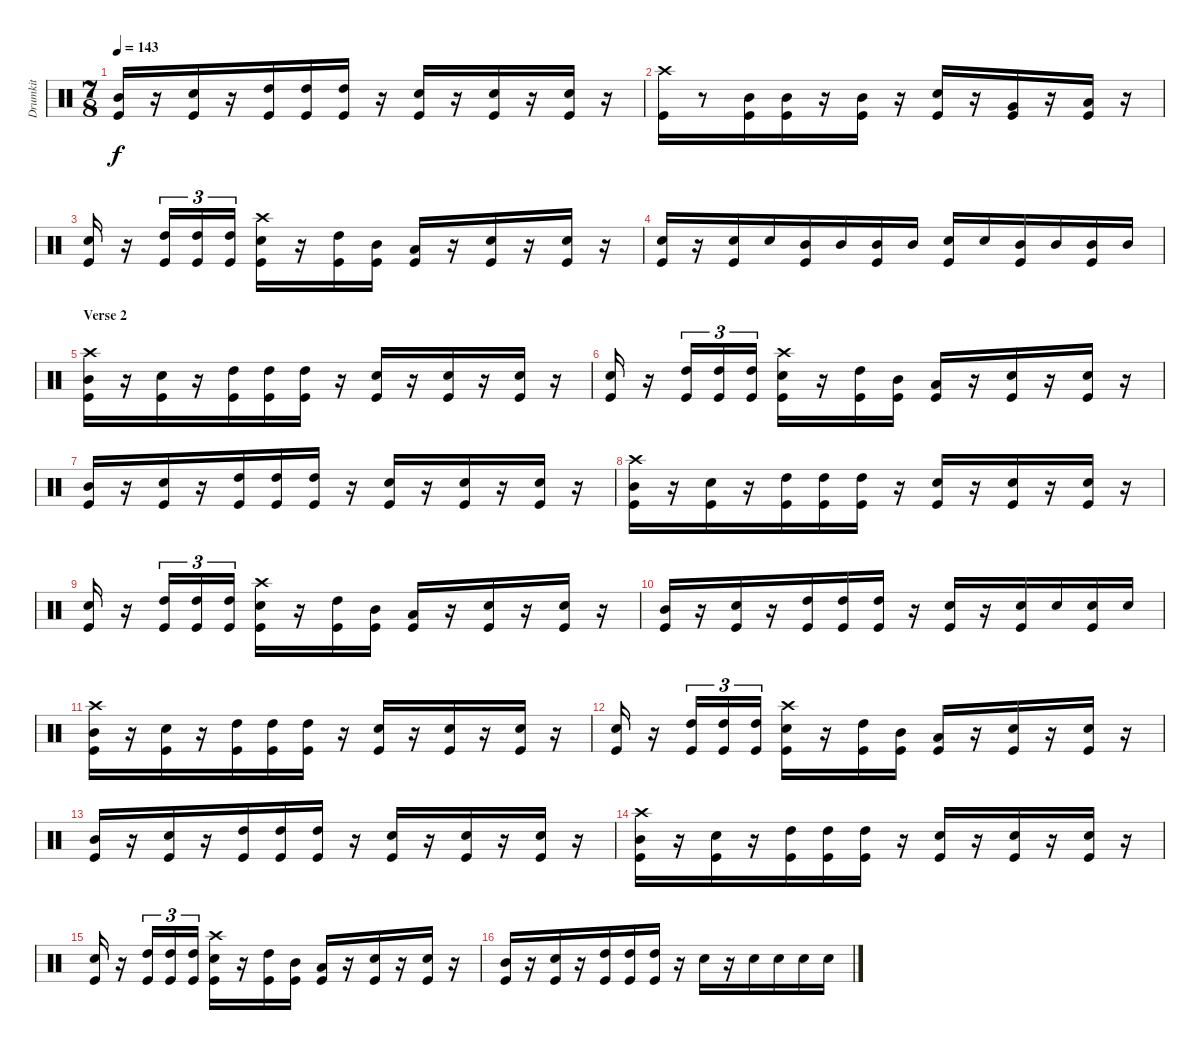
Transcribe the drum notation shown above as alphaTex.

\track ("Drumkit" "Drumkit") {instrument percussion}
\staff {score}
\articulation defaults
\ts (7 8)
\tempo 143
\clef neutral
\ks c
("Mid Tom (hit)" "Kick (hit)").16{dy f} r.16 ("Snare (hit) 2" "Kick (hit)").16 r.16 ("High Tom (hit)" "Kick (hit)").16 ("High Tom (hit)" "Kick (hit)").16 ("High Tom (hit)" "Kick (hit)").16 r.16 ("Snare (hit) 2" "Kick (hit)").16 r.16 ("Snare (hit) 2" "Kick (hit)").16 r.16 ("Snare (hit) 2" "Kick (hit)").16 r.16 |
("Crash high (hit)" "Kick (hit)").16 r.8 ("Mid Tom (hit)" "Kick (hit)").16 ("Mid Tom (hit)" "Kick (hit)").16 r.16 ("Mid Tom (hit)" "Kick (hit)").16 r.16 ("Snare (hit) 2" "Kick (hit)").16 r.16 ("Very Low Tom (hit)" "Kick (hit)").16 r.16 ("Low Tom (hit)" "Kick (hit)").16 r.16 |
("Snare (hit) 2" "Kick (hit)").16 r.16 ("High Tom (hit)" "Kick (hit)").16{tu (3 2)} ("High Tom (hit)" "Kick (hit)").16{tu (3 2)} ("High Tom (hit)" "Kick (hit)").16{tu (3 2)} ("Crash high (hit)" "Snare (hit) 2" "Kick (hit)").16 r.16 ("High Tom (hit)" "Kick (hit)").16 ("Mid Tom (hit)" "Kick (hit)").16 ("Low Tom (hit)" "Kick (hit)").16 r.16 ("Snare (hit) 2" "Kick (hit)").16 r.16 ("Snare (hit) 2" "Kick (hit)").16 r.16 |
("Snare (hit) 2" "Kick (hit)").16 r.16 ("Snare (hit) 2" "Kick (hit)").16 "Snare (hit) 2".16 ("Mid Tom (hit)" "Kick (hit)").16 "Mid Tom (hit)".16 ("Mid Tom (hit)" "Kick (hit)").16 "Mid Tom (hit)".16 ("Snare (hit) 2" "Kick (hit)").16 "Snare (hit) 2".16 ("Mid Tom (hit)" "Kick (hit)").16 "Mid Tom (hit)".16 ("Mid Tom (hit)" "Kick (hit)").16 "Mid Tom (hit)".16 |
\section ("" "Verse 2")
("Crash high (hit)" "Mid Tom (hit)" "Kick (hit)").16 r.16 ("Snare (hit) 2" "Kick (hit)").16 r.16 ("High Tom (hit)" "Kick (hit)").16 ("High Tom (hit)" "Kick (hit)").16 ("High Tom (hit)" "Kick (hit)").16 r.16 ("Snare (hit) 2" "Kick (hit)").16 r.16 ("Snare (hit) 2" "Kick (hit)").16 r.16 ("Snare (hit) 2" "Kick (hit)").16 r.16 |
("Snare (hit) 2" "Kick (hit)").16 r.16 ("High Tom (hit)" "Kick (hit)").16{tu (3 2)} ("High Tom (hit)" "Kick (hit)").16{tu (3 2)} ("High Tom (hit)" "Kick (hit)").16{tu (3 2)} ("Crash high (hit)" "Snare (hit) 2" "Kick (hit)").16 r.16 ("High Tom (hit)" "Kick (hit)").16 ("Mid Tom (hit)" "Kick (hit)").16 ("Low Tom (hit)" "Kick (hit)").16 r.16 ("Snare (hit) 2" "Kick (hit)").16 r.16 ("Snare (hit) 2" "Kick (hit)").16 r.16 |
("Mid Tom (hit)" "Kick (hit)").16 r.16 ("Snare (hit) 2" "Kick (hit)").16 r.16 ("High Tom (hit)" "Kick (hit)").16 ("High Tom (hit)" "Kick (hit)").16 ("High Tom (hit)" "Kick (hit)").16 r.16 ("Snare (hit) 2" "Kick (hit)").16 r.16 ("Snare (hit) 2" "Kick (hit)").16 r.16 ("Snare (hit) 2" "Kick (hit)").16 r.16 |
("Crash high (hit)" "Mid Tom (hit)" "Kick (hit)").16 r.16 ("Snare (hit) 2" "Kick (hit)").16 r.16 ("High Tom (hit)" "Kick (hit)").16 ("High Tom (hit)" "Kick (hit)").16 ("High Tom (hit)" "Kick (hit)").16 r.16 ("Snare (hit) 2" "Kick (hit)").16 r.16 ("Snare (hit) 2" "Kick (hit)").16 r.16 ("Snare (hit) 2" "Kick (hit)").16 r.16 |
("Snare (hit) 2" "Kick (hit)").16 r.16 ("High Tom (hit)" "Kick (hit)").16{tu (3 2)} ("High Tom (hit)" "Kick (hit)").16{tu (3 2)} ("High Tom (hit)" "Kick (hit)").16{tu (3 2)} ("Crash high (hit)" "Snare (hit) 2" "Kick (hit)").16 r.16 ("High Tom (hit)" "Kick (hit)").16 ("Mid Tom (hit)" "Kick (hit)").16 ("Low Tom (hit)" "Kick (hit)").16 r.16 ("Snare (hit) 2" "Kick (hit)").16 r.16 ("Snare (hit) 2" "Kick (hit)").16 r.16 |
("Mid Tom (hit)" "Kick (hit)").16 r.16 ("Snare (hit) 2" "Kick (hit)").16 r.16 ("High Tom (hit)" "Kick (hit)").16 ("High Tom (hit)" "Kick (hit)").16 ("High Tom (hit)" "Kick (hit)").16 r.16 ("Snare (hit) 2" "Kick (hit)").16 r.16 ("Snare (hit) 2" "Kick (hit)").16 "Snare (hit) 2".16 ("Snare (hit) 2" "Kick (hit)").16 "Snare (hit) 2".16 |
("Crash high (hit)" "Mid Tom (hit)" "Kick (hit)").16 r.16 ("Snare (hit) 2" "Kick (hit)").16 r.16 ("High Tom (hit)" "Kick (hit)").16 ("High Tom (hit)" "Kick (hit)").16 ("High Tom (hit)" "Kick (hit)").16 r.16 ("Snare (hit) 2" "Kick (hit)").16 r.16 ("Snare (hit) 2" "Kick (hit)").16 r.16 ("Snare (hit) 2" "Kick (hit)").16 r.16 |
("Snare (hit) 2" "Kick (hit)").16 r.16 ("High Tom (hit)" "Kick (hit)").16{tu (3 2)} ("High Tom (hit)" "Kick (hit)").16{tu (3 2)} ("High Tom (hit)" "Kick (hit)").16{tu (3 2)} ("Crash high (hit)" "Snare (hit) 2" "Kick (hit)").16 r.16 ("High Tom (hit)" "Kick (hit)").16 ("Mid Tom (hit)" "Kick (hit)").16 ("Low Tom (hit)" "Kick (hit)").16 r.16 ("Snare (hit) 2" "Kick (hit)").16 r.16 ("Snare (hit) 2" "Kick (hit)").16 r.16 |
("Mid Tom (hit)" "Kick (hit)").16 r.16 ("Snare (hit) 2" "Kick (hit)").16 r.16 ("High Tom (hit)" "Kick (hit)").16 ("High Tom (hit)" "Kick (hit)").16 ("High Tom (hit)" "Kick (hit)").16 r.16 ("Snare (hit) 2" "Kick (hit)").16 r.16 ("Snare (hit) 2" "Kick (hit)").16 r.16 ("Snare (hit) 2" "Kick (hit)").16 r.16 |
("Crash high (hit)" "Mid Tom (hit)" "Kick (hit)").16 r.16 ("Snare (hit) 2" "Kick (hit)").16 r.16 ("High Tom (hit)" "Kick (hit)").16 ("High Tom (hit)" "Kick (hit)").16 ("High Tom (hit)" "Kick (hit)").16 r.16 ("Snare (hit) 2" "Kick (hit)").16 r.16 ("Snare (hit) 2" "Kick (hit)").16 r.16 ("Snare (hit) 2" "Kick (hit)").16 r.16 |
("Snare (hit) 2" "Kick (hit)").16 r.16 ("High Tom (hit)" "Kick (hit)").16{tu (3 2)} ("High Tom (hit)" "Kick (hit)").16{tu (3 2)} ("High Tom (hit)" "Kick (hit)").16{tu (3 2)} ("Crash high (hit)" "Snare (hit) 2" "Kick (hit)").16 r.16 ("High Tom (hit)" "Kick (hit)").16 ("Mid Tom (hit)" "Kick (hit)").16 ("Low Tom (hit)" "Kick (hit)").16 r.16 ("Snare (hit) 2" "Kick (hit)").16 r.16 ("Snare (hit) 2" "Kick (hit)").16 r.16 |
("Mid Tom (hit)" "Kick (hit)").16 r.16 ("Snare (hit) 2" "Kick (hit)").16 r.16 ("High Tom (hit)" "Kick (hit)").16 ("High Tom (hit)" "Kick (hit)").16 ("High Tom (hit)" "Kick (hit)").16 r.16 "Snare (hit) 2".16 r.16 "Snare (hit) 2".16 "Snare (hit) 2".16 "Snare (hit) 2".16 "Snare (hit) 2".16
